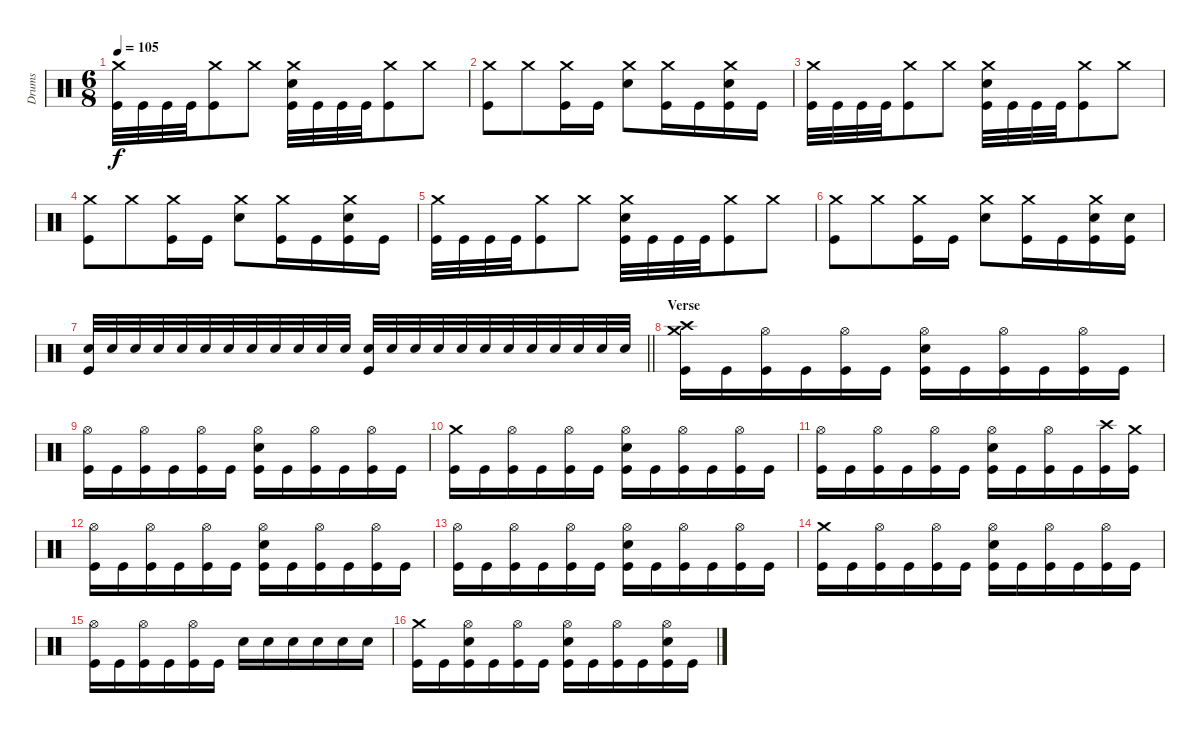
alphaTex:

\track ("Drums" "Drums") {instrument percussion}
\staff {score}
\articulation defaults
\ts (6 8)
\tempo 105
\clef neutral
\ks c
("Crash medium (hit)" "Kick (hit)").32{dy f} "Kick (hit)".32 "Kick (hit)".32 "Kick (hit)".32 ("Crash medium (hit)" "Kick (hit)").8 "Crash medium (hit)".8 ("Crash medium (hit)" "Electric Snare (hit)" "Kick (hit)").32 "Kick (hit)".32 "Kick (hit)".32 "Kick (hit)".32 ("Crash medium (hit)" "Kick (hit)").8 "Crash medium (hit)".8 |
("Crash medium (hit)" "Kick (hit)").8 "Crash medium (hit)".8 ("Crash medium (hit)" "Kick (hit)").16 "Kick (hit)".16 ("Crash medium (hit)" "Electric Snare (hit)").8 ("Crash medium (hit)" "Kick (hit)").16 "Kick (hit)".16 ("Crash medium (hit)" "Electric Snare (hit)" "Kick (hit)").16 "Kick (hit)".16 |
("Crash medium (hit)" "Kick (hit)").32 "Kick (hit)".32 "Kick (hit)".32 "Kick (hit)".32 ("Crash medium (hit)" "Kick (hit)").8 "Crash medium (hit)".8 ("Crash medium (hit)" "Electric Snare (hit)" "Kick (hit)").32 "Kick (hit)".32 "Kick (hit)".32 "Kick (hit)".32 ("Crash medium (hit)" "Kick (hit)").8 "Crash medium (hit)".8 |
("Crash medium (hit)" "Kick (hit)").8 "Crash medium (hit)".8 ("Crash medium (hit)" "Kick (hit)").16 "Kick (hit)".16 ("Crash medium (hit)" "Electric Snare (hit)").8 ("Crash medium (hit)" "Kick (hit)").16 "Kick (hit)".16 ("Crash medium (hit)" "Electric Snare (hit)" "Kick (hit)").16 "Kick (hit)".16 |
("Crash medium (hit)" "Kick (hit)").32 "Kick (hit)".32 "Kick (hit)".32 "Kick (hit)".32 ("Crash medium (hit)" "Kick (hit)").8 "Crash medium (hit)".8 ("Crash medium (hit)" "Electric Snare (hit)" "Kick (hit)").32 "Kick (hit)".32 "Kick (hit)".32 "Kick (hit)".32 ("Crash medium (hit)" "Kick (hit)").8 "Crash medium (hit)".8 |
("Crash medium (hit)" "Kick (hit)").8 "Crash medium (hit)".8 ("Crash medium (hit)" "Kick (hit)").16 "Kick (hit)".16 ("Crash medium (hit)" "Electric Snare (hit)").8 ("Crash medium (hit)" "Kick (hit)").16 "Kick (hit)".16 ("Crash medium (hit)" "Electric Snare (hit)" "Kick (hit)").16 ("Electric Snare (hit)" "Kick (hit)").16 |
\barLineRight lightlight
("Electric Snare (hit)" "Kick (hit)").32 "Electric Snare (hit)".32 "Electric Snare (hit)".32 "Electric Snare (hit)".32 "Electric Snare (hit)".32 "Electric Snare (hit)".32 "Electric Snare (hit)".32 "Electric Snare (hit)".32 "Electric Snare (hit)".32 "Electric Snare (hit)".32 "Electric Snare (hit)".32 "Electric Snare (hit)".32 ("Electric Snare (hit)" "Kick (hit)").32 "Electric Snare (hit)".32 "Electric Snare (hit)".32 "Electric Snare (hit)".32 "Electric Snare (hit)".32 "Electric Snare (hit)".32 "Electric Snare (hit)".32 "Electric Snare (hit)".32 "Electric Snare (hit)".32 "Electric Snare (hit)".32 "Electric Snare (hit)".32 "Electric Snare (hit)".32 |
\section ("" "Verse")
("Crash medium (hit)" "Crash high (hit)" "Kick (hit)").16 "Kick (hit)".16 ("Hi-Hat (open)" "Kick (hit)").16 "Kick (hit)".16 ("Hi-Hat (open)" "Kick (hit)").16 "Kick (hit)".16 ("Hi-Hat (open)" "Electric Snare (hit)" "Kick (hit)").16 "Kick (hit)".16 ("Hi-Hat (open)" "Kick (hit)").16 "Kick (hit)".16 ("Hi-Hat (open)" "Kick (hit)").16 "Kick (hit)".16 |
("Hi-Hat (open)" "Kick (hit)").16 "Kick (hit)".16 ("Hi-Hat (open)" "Kick (hit)").16 "Kick (hit)".16 ("Hi-Hat (open)" "Kick (hit)").16 "Kick (hit)".16 ("Hi-Hat (open)" "Electric Snare (hit)" "Kick (hit)").16 "Kick (hit)".16 ("Hi-Hat (open)" "Kick (hit)").16 "Kick (hit)".16 ("Hi-Hat (open)" "Kick (hit)").16 "Kick (hit)".16 |
("Crash medium (hit)" "Kick (hit)").16 "Kick (hit)".16 ("Hi-Hat (open)" "Kick (hit)").16 "Kick (hit)".16 ("Hi-Hat (open)" "Kick (hit)").16 "Kick (hit)".16 ("Hi-Hat (open)" "Electric Snare (hit)" "Kick (hit)").16 "Kick (hit)".16 ("Hi-Hat (open)" "Kick (hit)").16 "Kick (hit)".16 ("Hi-Hat (open)" "Kick (hit)").16 "Kick (hit)".16 |
("Hi-Hat (open)" "Kick (hit)").16 "Kick (hit)".16 ("Hi-Hat (open)" "Kick (hit)").16 "Kick (hit)".16 ("Hi-Hat (open)" "Kick (hit)").16 "Kick (hit)".16 ("Hi-Hat (open)" "Electric Snare (hit)" "Kick (hit)").16 "Kick (hit)".16 ("Hi-Hat (open)" "Kick (hit)").16 "Kick (hit)".16 ("Crash high (hit)" "Kick (hit)").16 ("Crash medium (hit)" "Kick (hit)").16 |
("Hi-Hat (open)" "Kick (hit)").16 "Kick (hit)".16 ("Hi-Hat (open)" "Kick (hit)").16 "Kick (hit)".16 ("Hi-Hat (open)" "Kick (hit)").16 "Kick (hit)".16 ("Hi-Hat (open)" "Electric Snare (hit)" "Kick (hit)").16 "Kick (hit)".16 ("Hi-Hat (open)" "Kick (hit)").16 "Kick (hit)".16 ("Hi-Hat (open)" "Kick (hit)").16 "Kick (hit)".16 |
("Hi-Hat (open)" "Kick (hit)").16 "Kick (hit)".16 ("Hi-Hat (open)" "Kick (hit)").16 "Kick (hit)".16 ("Hi-Hat (open)" "Kick (hit)").16 "Kick (hit)".16 ("Hi-Hat (open)" "Electric Snare (hit)" "Kick (hit)").16 "Kick (hit)".16 ("Hi-Hat (open)" "Kick (hit)").16 "Kick (hit)".16 ("Hi-Hat (open)" "Kick (hit)").16 "Kick (hit)".16 |
("Crash medium (hit)" "Kick (hit)").16 "Kick (hit)".16 ("Hi-Hat (open)" "Kick (hit)").16 "Kick (hit)".16 ("Hi-Hat (open)" "Kick (hit)").16 "Kick (hit)".16 ("Hi-Hat (open)" "Electric Snare (hit)" "Kick (hit)").16 "Kick (hit)".16 ("Hi-Hat (open)" "Kick (hit)").16 "Kick (hit)".16 ("Hi-Hat (open)" "Kick (hit)").16 "Kick (hit)".16 |
("Hi-Hat (open)" "Kick (hit)").16 "Kick (hit)".16 ("Hi-Hat (open)" "Kick (hit)").16 "Kick (hit)".16 ("Hi-Hat (open)" "Kick (hit)").16 "Kick (hit)".16 "Electric Snare (hit)".16 "Electric Snare (hit)".16 "Electric Snare (hit)".16 "Electric Snare (hit)".16 "Electric Snare (hit)".16 "Electric Snare (hit)".16 |
("Crash medium (hit)" "Kick (hit)").16 "Kick (hit)".16 ("Hi-Hat (open)" "Electric Snare (hit)" "Kick (hit)").16 "Kick (hit)".16 ("Hi-Hat (open)" "Kick (hit)").16 "Kick (hit)".16 ("Hi-Hat (open)" "Electric Snare (hit)" "Kick (hit)").16 "Kick (hit)".16 ("Hi-Hat (open)" "Kick (hit)").16 "Kick (hit)".16 ("Hi-Hat (open)" "Electric Snare (hit)" "Kick (hit)").16 "Kick (hit)".16
